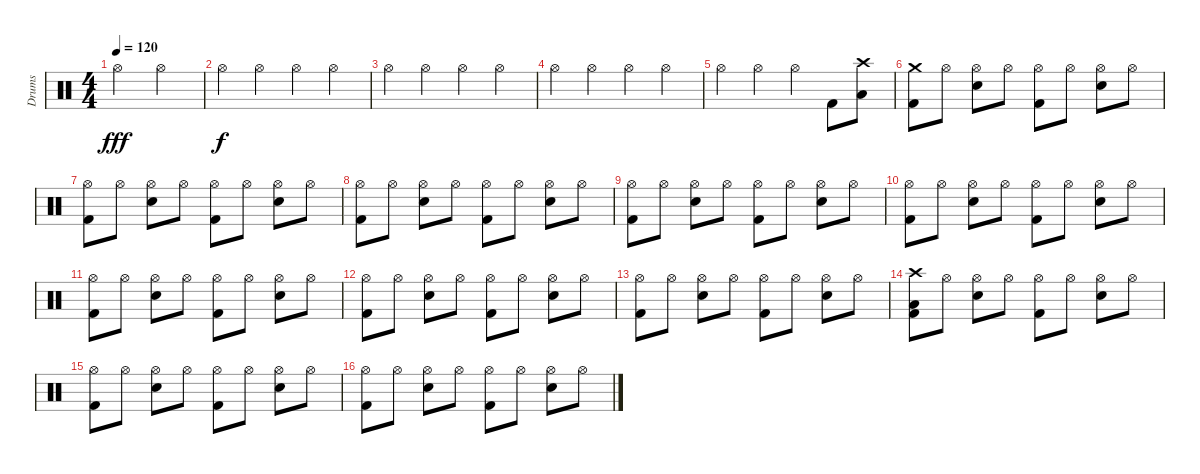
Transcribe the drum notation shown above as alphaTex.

\track ("Drums" "Drums") {instrument percussion}
\staff {score}
\articulation defaults
\ts (4 4)
\tempo 120
\clef neutral
\ks c "Hi-Hat (open)".2{dy fff} "Hi-Hat (open)".2
|
"Hi-Hat (open)".4{dy f} "Hi-Hat (open)".4 "Hi-Hat (open)".4 "Hi-Hat (open)".4 |
"Hi-Hat (open)".4 "Hi-Hat (open)".4 "Hi-Hat (open)".4 "Hi-Hat (open)".4 |
"Hi-Hat (open)".4 "Hi-Hat (open)".4 "Hi-Hat (open)".4 "Hi-Hat (open)".4 |
"Hi-Hat (open)".4 "Hi-Hat (open)".4 "Hi-Hat (open)".4 "Kick (hit) 2".8 ("Low Tom (hit)" "Crash high (hit)").8 |
("Kick (hit) 2" "Crash medium (hit)").8 "Hi-Hat (open)".8 ("Snare (hit) 2" "Hi-Hat (open)").8 "Hi-Hat (open)".8 ("Kick (hit) 2" "Hi-Hat (open)").8 "Hi-Hat (open)".8 ("Snare (hit) 2" "Hi-Hat (open)").8 "Hi-Hat (open)".8 |
("Kick (hit) 2" "Hi-Hat (open)").8 "Hi-Hat (open)".8 ("Snare (hit) 2" "Hi-Hat (open)").8 "Hi-Hat (open)".8 ("Kick (hit) 2" "Hi-Hat (open)").8 "Hi-Hat (open)".8 ("Snare (hit) 2" "Hi-Hat (open)").8 "Hi-Hat (open)".8 |
("Kick (hit) 2" "Hi-Hat (open)").8 "Hi-Hat (open)".8 ("Snare (hit) 2" "Hi-Hat (open)").8 "Hi-Hat (open)".8 ("Kick (hit) 2" "Hi-Hat (open)").8 "Hi-Hat (open)".8 ("Snare (hit) 2" "Hi-Hat (open)").8 "Hi-Hat (open)".8 |
("Kick (hit) 2" "Hi-Hat (open)").8 "Hi-Hat (open)".8 ("Snare (hit) 2" "Hi-Hat (open)").8 "Hi-Hat (open)".8 ("Kick (hit) 2" "Hi-Hat (open)").8 "Hi-Hat (open)".8 ("Snare (hit) 2" "Hi-Hat (open)").8 "Hi-Hat (open)".8 |
("Kick (hit) 2" "Hi-Hat (open)").8 "Hi-Hat (open)".8 ("Snare (hit) 2" "Hi-Hat (open)").8 "Hi-Hat (open)".8 ("Kick (hit) 2" "Hi-Hat (open)").8 "Hi-Hat (open)".8 ("Snare (hit) 2" "Hi-Hat (open)").8 "Hi-Hat (open)".8 |
("Kick (hit) 2" "Hi-Hat (open)").8 "Hi-Hat (open)".8 ("Snare (hit) 2" "Hi-Hat (open)").8 "Hi-Hat (open)".8 ("Kick (hit) 2" "Hi-Hat (open)").8 "Hi-Hat (open)".8 ("Snare (hit) 2" "Hi-Hat (open)").8 "Hi-Hat (open)".8 |
("Kick (hit) 2" "Hi-Hat (open)").8 "Hi-Hat (open)".8 ("Snare (hit) 2" "Hi-Hat (open)").8 "Hi-Hat (open)".8 ("Kick (hit) 2" "Hi-Hat (open)").8 "Hi-Hat (open)".8 ("Snare (hit) 2" "Hi-Hat (open)").8 "Hi-Hat (open)".8 |
("Kick (hit) 2" "Hi-Hat (open)").8 "Hi-Hat (open)".8 ("Snare (hit) 2" "Hi-Hat (open)").8 "Hi-Hat (open)".8 ("Kick (hit) 2" "Hi-Hat (open)").8 "Hi-Hat (open)".8 ("Snare (hit) 2" "Hi-Hat (open)").8 "Hi-Hat (open)".8 |
("Kick (hit) 2" "Low Tom (hit)" "Crash high (hit)").8 "Hi-Hat (open)".8 ("Snare (hit) 2" "Hi-Hat (open)").8 "Hi-Hat (open)".8 ("Kick (hit) 2" "Hi-Hat (open)").8 "Hi-Hat (open)".8 ("Snare (hit) 2" "Hi-Hat (open)").8 "Hi-Hat (open)".8 |
("Kick (hit) 2" "Hi-Hat (open)").8 "Hi-Hat (open)".8 ("Snare (hit) 2" "Hi-Hat (open)").8 "Hi-Hat (open)".8 ("Kick (hit) 2" "Hi-Hat (open)").8 "Hi-Hat (open)".8 ("Snare (hit) 2" "Hi-Hat (open)").8 "Hi-Hat (open)".8 |
("Kick (hit) 2" "Hi-Hat (open)").8 "Hi-Hat (open)".8 ("Snare (hit) 2" "Hi-Hat (open)").8 "Hi-Hat (open)".8 ("Kick (hit) 2" "Hi-Hat (open)").8 "Hi-Hat (open)".8 ("Snare (hit) 2" "Hi-Hat (open)").8 "Hi-Hat (open)".8
